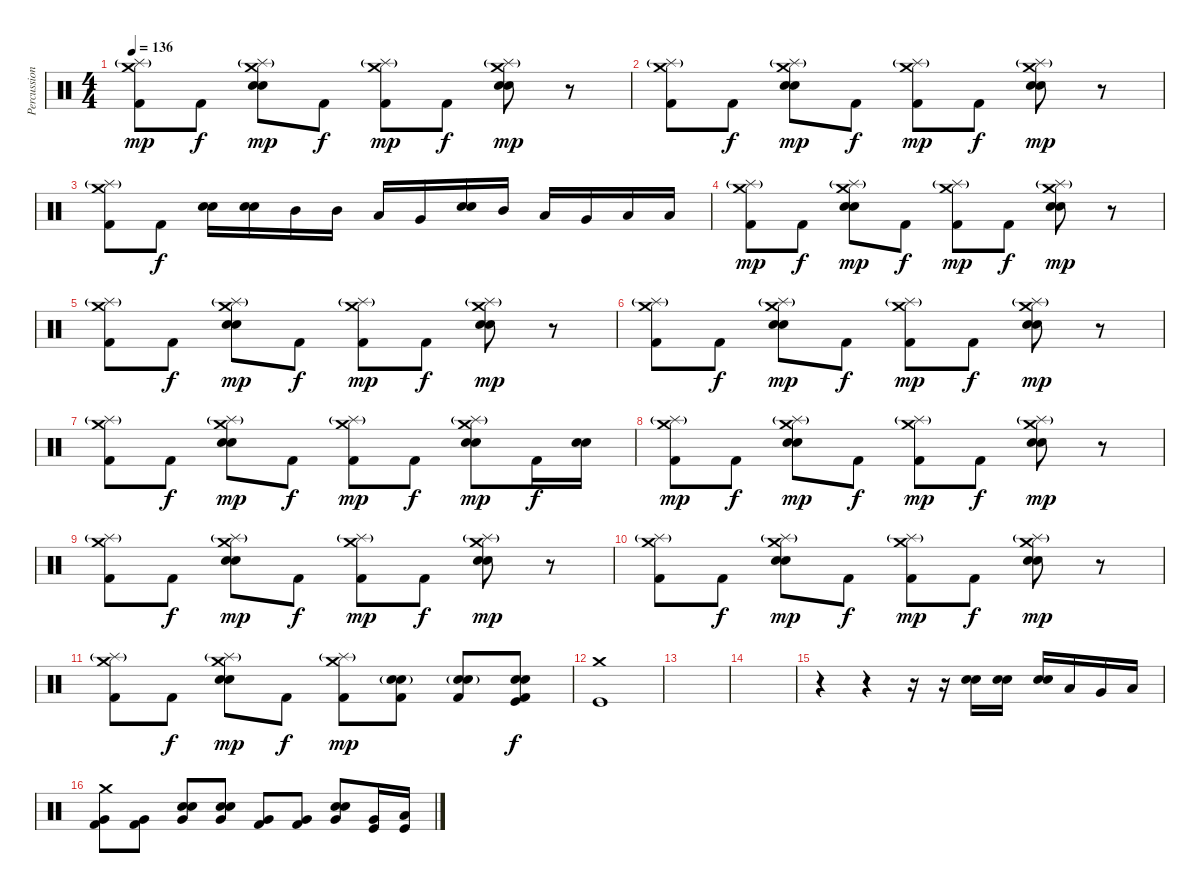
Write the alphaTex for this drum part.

\track ("Percussion" "Percussion") {instrument percussion}
\staff {score}
\articulation defaults
\ts (4 4)
\tempo 136
\clef neutral
\ks c
("Splash (hit)"{g} "Crash medium (hit)" "Kick (hit) 2").8{dy mp} "Kick (hit) 2".8{dy f} ("Splash (hit)"{g} "Crash medium (hit)" "Snare (hit) 2" "Electric Snare (hit)").8{dy mp} "Kick (hit) 2".8{dy f} ("Splash (hit)"{g} "Crash medium (hit)" "Kick (hit) 2").8{dy mp} "Kick (hit) 2".8{dy f} ("Splash (hit)"{g} "Crash medium (hit)" "Snare (hit) 2" "Electric Snare (hit)").8{dy mp} r.8 |
("Splash (hit)"{g} "Crash medium (hit)" "Kick (hit) 2").8 "Kick (hit) 2".8{dy f} ("Splash (hit)"{g} "Crash medium (hit)" "Snare (hit) 2" "Electric Snare (hit)").8{dy mp} "Kick (hit) 2".8{dy f} ("Splash (hit)"{g} "Crash medium (hit)" "Kick (hit) 2").8{dy mp} "Kick (hit) 2".8{dy f} ("Splash (hit)"{g} "Crash medium (hit)" "Snare (hit) 2" "Electric Snare (hit)").8{dy mp} r.8 |
("Splash (hit)"{g} "Crash medium (hit)" "Kick (hit) 2").8 "Kick (hit) 2".8{dy f} ("Snare (hit) 2" "Electric Snare (hit)").16 ("Snare (hit) 2" "Electric Snare (hit)").16 "Mid Tom (hit)".16 "Mid Tom (hit)".16 "Low Tom (hit)".16 "Very Low Tom (hit)".16 ("Snare (hit) 2" "Electric Snare (hit)").16 "Mid Tom (hit)".16 "Low Tom (hit)".16 "Very Low Tom (hit)".16 "Low Floor Tom (hit)".16 "Low Floor Tom (hit)".16 |
("Splash (hit)"{g} "Crash medium (hit)" "Kick (hit) 2").8{dy mp} "Kick (hit) 2".8{dy f} ("Splash (hit)"{g} "Crash medium (hit)" "Snare (hit) 2" "Electric Snare (hit)").8{dy mp} "Kick (hit) 2".8{dy f} ("Splash (hit)"{g} "Crash medium (hit)" "Kick (hit) 2").8{dy mp} "Kick (hit) 2".8{dy f} ("Splash (hit)"{g} "Crash medium (hit)" "Snare (hit) 2" "Electric Snare (hit)").8{dy mp} r.8 |
("Splash (hit)"{g} "Crash medium (hit)" "Kick (hit) 2").8 "Kick (hit) 2".8{dy f} ("Splash (hit)"{g} "Crash medium (hit)" "Snare (hit) 2" "Electric Snare (hit)").8{dy mp} "Kick (hit) 2".8{dy f} ("Splash (hit)"{g} "Crash medium (hit)" "Kick (hit) 2").8{dy mp} "Kick (hit) 2".8{dy f} ("Splash (hit)"{g} "Crash medium (hit)" "Snare (hit) 2" "Electric Snare (hit)").8{dy mp} r.8 |
("Splash (hit)"{g} "Crash medium (hit)" "Kick (hit) 2").8 "Kick (hit) 2".8{dy f} ("Splash (hit)"{g} "Crash medium (hit)" "Snare (hit) 2" "Electric Snare (hit)").8{dy mp} "Kick (hit) 2".8{dy f} ("Splash (hit)"{g} "Crash medium (hit)" "Kick (hit) 2").8{dy mp} "Kick (hit) 2".8{dy f} ("Splash (hit)"{g} "Crash medium (hit)" "Snare (hit) 2" "Electric Snare (hit)").8{dy mp} r.8 |
("Splash (hit)"{g} "Crash medium (hit)" "Kick (hit) 2").8 "Kick (hit) 2".8{dy f} ("Splash (hit)"{g} "Crash medium (hit)" "Snare (hit) 2" "Electric Snare (hit)").8{dy mp} "Kick (hit) 2".8{dy f} ("Splash (hit)"{g} "Crash medium (hit)" "Kick (hit) 2").8{dy mp} "Kick (hit) 2".8{dy f} ("Splash (hit)"{g} "Crash medium (hit)" "Snare (hit) 2" "Electric Snare (hit)").8{dy mp} "Kick (hit) 2".16{dy f} ("Snare (hit) 2" "Electric Snare (hit)").16 |
("Splash (hit)"{g} "Crash medium (hit)" "Kick (hit) 2").8{dy mp} "Kick (hit) 2".8{dy f} ("Splash (hit)"{g} "Crash medium (hit)" "Snare (hit) 2" "Electric Snare (hit)").8{dy mp} "Kick (hit) 2".8{dy f} ("Splash (hit)"{g} "Crash medium (hit)" "Kick (hit) 2").8{dy mp} "Kick (hit) 2".8{dy f} ("Splash (hit)"{g} "Crash medium (hit)" "Snare (hit) 2" "Electric Snare (hit)").8{dy mp} r.8 |
("Splash (hit)"{g} "Crash medium (hit)" "Kick (hit) 2").8 "Kick (hit) 2".8{dy f} ("Splash (hit)"{g} "Crash medium (hit)" "Snare (hit) 2" "Electric Snare (hit)").8{dy mp} "Kick (hit) 2".8{dy f} ("Splash (hit)"{g} "Crash medium (hit)" "Kick (hit) 2").8{dy mp} "Kick (hit) 2".8{dy f} ("Splash (hit)"{g} "Crash medium (hit)" "Snare (hit) 2" "Electric Snare (hit)").8{dy mp} r.8 |
("Splash (hit)"{g} "Crash medium (hit)" "Kick (hit) 2").8 "Kick (hit) 2".8{dy f} ("Splash (hit)"{g} "Crash medium (hit)" "Snare (hit) 2" "Electric Snare (hit)").8{dy mp} "Kick (hit) 2".8{dy f} ("Splash (hit)"{g} "Crash medium (hit)" "Kick (hit) 2").8{dy mp} "Kick (hit) 2".8{dy f} ("Splash (hit)"{g} "Crash medium (hit)" "Snare (hit) 2" "Electric Snare (hit)").8{dy mp} r.8 |
("Splash (hit)"{g} "Crash medium (hit)" "Kick (hit) 2").8 "Kick (hit) 2".8{dy f} ("Splash (hit)"{g} "Crash medium (hit)" "Snare (hit) 2" "Electric Snare (hit)").8{dy mp} "Kick (hit) 2".8{dy f} ("Splash (hit)"{g} "Crash medium (hit)" "Kick (hit) 2").8{dy mp} ("Snare (hit) 2"{g} "Electric Snare (hit)"{g} "Kick (hit) 2").8 ("Snare (hit) 2" "Electric Snare (hit)"{g} "Kick (hit) 2").8 ("Kick (hit)" "Snare (hit) 2" "Electric Snare (hit)" "Kick (hit) 2").8{dy f} |
("Crash medium (hit)" "Kick (hit)").1 |
|
|
r.4 r.4 r.16 r.16 ("Snare (hit) 2" "Electric Snare (hit)").16 ("Snare (hit) 2" "Electric Snare (hit)").16 ("Snare (hit) 2" "Electric Snare (hit)").16 "Low Tom (hit)".16 "Very Low Tom (hit)".16 "Low Floor Tom (hit)".16 |
("Crash medium (hit)" "Very Low Tom (hit)" "Kick (hit) 2").8 ("Very Low Tom (hit)" "Kick (hit) 2").8 ("Electric Snare (hit)" "Snare (hit) 2" "Very Low Tom (hit)").8 ("Electric Snare (hit)" "Snare (hit) 2" "Very Low Tom (hit)").8 ("Very Low Tom (hit)" "Kick (hit) 2").8 ("Very Low Tom (hit)" "Kick (hit) 2").8 ("Snare (hit) 2" "Electric Snare (hit)" "Very Low Tom (hit)").8 ("Very Low Tom (hit)" "Kick (hit)").16 ("Low Floor Tom (hit)" "Kick (hit)").16
